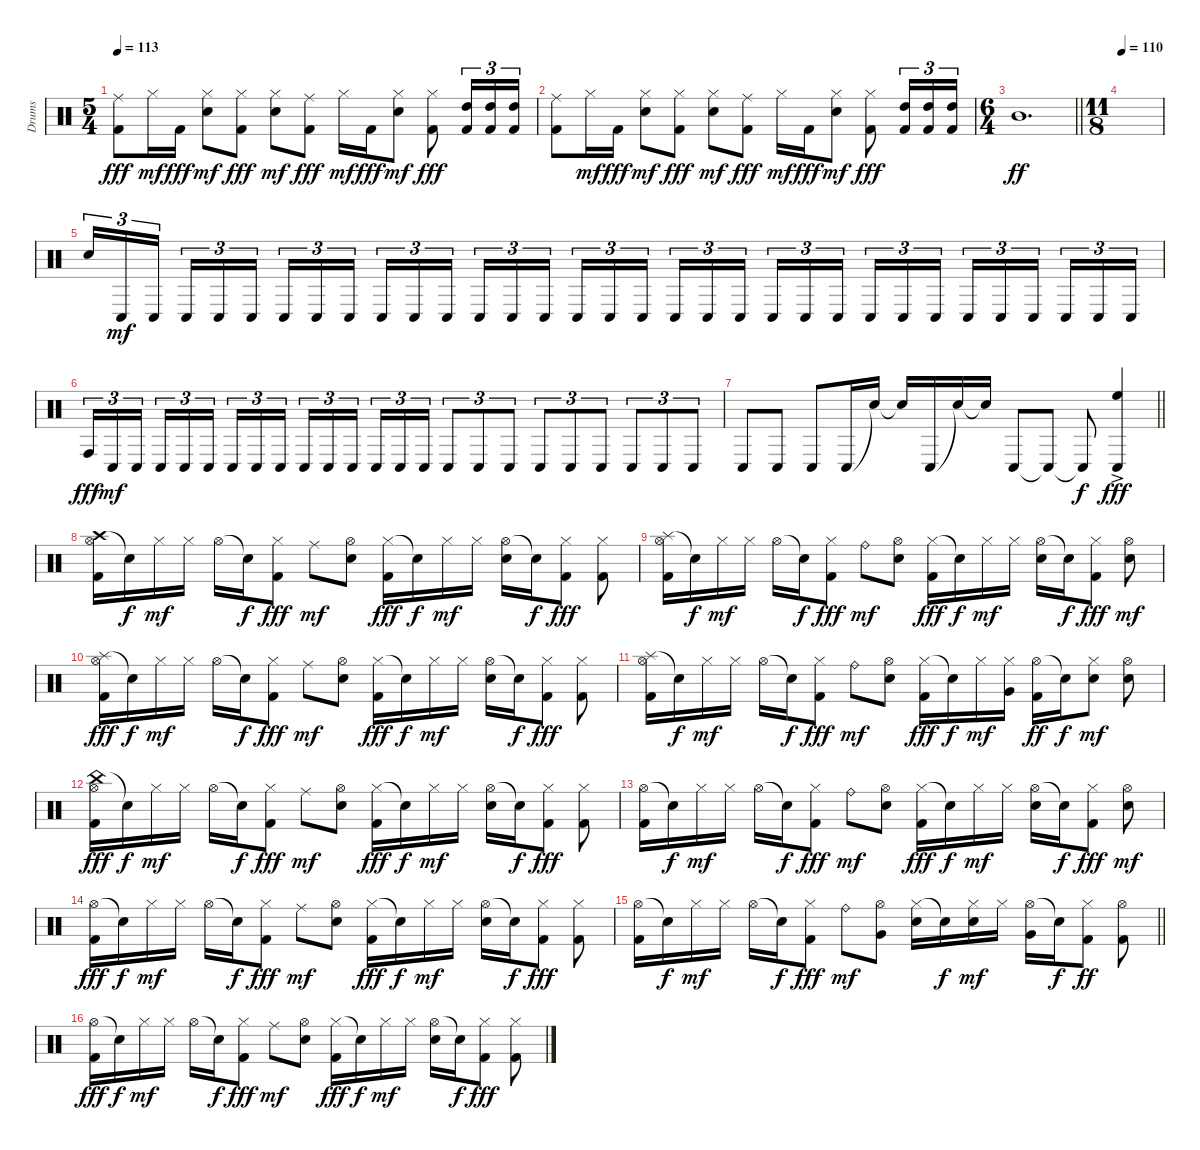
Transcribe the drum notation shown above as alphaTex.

\track ("Drums" "Drums") {instrument percussion}
\staff {score}
\articulation defaults
\ts (5 4)
\tempo 113
\clef neutral
\ks c
("Ride (middle)" "Kick (hit) 2").8{dy fff} "Hi-Hat (closed)".16{dy mf} "Kick (hit) 2".16{dy fff} ("Hi-Hat (closed)" "Snare (hit) 2").8{dy mf} ("Hi-Hat (closed)" "Kick (hit) 2").8{dy fff} ("Hi-Hat (closed)" "Snare (hit) 2").8{dy mf} ("Ride (middle)" "Kick (hit) 2").8{dy fff} "Hi-Hat (closed)".16{dy mf} "Kick (hit) 2".16{dy fff} ("Hi-Hat (closed)" "Snare (hit) 2").8{dy mf} ("Hi-Hat (closed)" "Kick (hit) 2").8{dy fff} ("High Tom (hit)" "Kick (hit) 2").16{tu (3 2)} ("High Tom (hit)" "Kick (hit) 2").16{tu (3 2)} ("High Tom (hit)" "Kick (hit) 2").16{tu (3 2)} |
("Ride (middle)" "Kick (hit) 2").8 "Hi-Hat (closed)".16{dy mf} "Kick (hit) 2".16{dy fff} ("Hi-Hat (closed)" "Snare (hit) 2").8{dy mf} ("Hi-Hat (closed)" "Kick (hit) 2").8{dy fff} ("Hi-Hat (closed)" "Snare (hit) 2").8{dy mf} ("Ride (middle)" "Kick (hit) 2").8{dy fff} "Hi-Hat (closed)".16{dy mf} "Kick (hit) 2".16{dy fff} ("Hi-Hat (closed)" "Snare (hit) 2").8{dy mf} ("Hi-Hat (closed)" "Kick (hit) 2").8{dy fff} ("High Tom (hit)" "Kick (hit) 2").16{tu (3 2)} ("High Tom (hit)" "Kick (hit) 2").16{tu (3 2)} ("High Tom (hit)" "Kick (hit) 2").16{tu (3 2)} |
\ts (6 4)
\barLineRight lightlight "Mid Tom (hit)".1{d dy ff}
|
\ts (11 8)
\section ("" "")
\tempo 110
|
"Snare (hit) 2".16{tu (3 2)} "Conga low (hit)".16{tu (3 2) dy mf} "Conga low (hit)".16{tu (3 2)} "Conga low (hit)".16{tu (3 2)} "Conga low (hit)".16{tu (3 2)} "Conga low (hit)".16{tu (3 2)} "Conga low (hit)".16{tu (3 2)} "Conga low (hit)".16{tu (3 2)} "Conga low (hit)".16{tu (3 2)} "Conga low (hit)".16{tu (3 2)} "Conga low (hit)".16{tu (3 2)} "Conga low (hit)".16{tu (3 2)} "Conga low (hit)".16{tu (3 2)} "Conga low (hit)".16{tu (3 2)} "Conga low (hit)".16{tu (3 2)} "Conga low (hit)".16{tu (3 2)} "Conga low (hit)".16{tu (3 2)} "Conga low (hit)".16{tu (3 2)} "Conga low (hit)".16{tu (3 2)} "Conga low (hit)".16{tu (3 2)} "Conga low (hit)".16{tu (3 2)} "Conga low (hit)".16{tu (3 2)} "Conga low (hit)".16{tu (3 2)} "Conga low (hit)".16{tu (3 2)} "Conga low (hit)".16{tu (3 2)} "Conga low (hit)".16{tu (3 2)} "Conga low (hit)".16{tu (3 2)} "Conga low (hit)".16{tu (3 2)} "Conga low (hit)".16{tu (3 2)} "Conga low (hit)".16{tu (3 2)} "Conga low (hit)".16{tu (3 2)} "Conga low (hit)".16{tu (3 2)} "Conga low (hit)".16{tu (3 2)} |
"Conga high (hit)".16{tu (3 2) dy fff} "Conga low (hit)".16{tu (3 2) dy mf} "Conga low (hit)".16{tu (3 2)} "Conga low (hit)".16{tu (3 2)} "Conga low (hit)".16{tu (3 2)} "Conga low (hit)".16{tu (3 2)} "Conga low (hit)".16{tu (3 2)} "Conga low (hit)".16{tu (3 2)} "Conga low (hit)".16{tu (3 2)} "Conga low (hit)".16{tu (3 2)} "Conga low (hit)".16{tu (3 2)} "Conga low (hit)".16{tu (3 2)} "Conga low (hit)".16{tu (3 2)} "Conga low (hit)".16{tu (3 2)} "Conga low (hit)".16{tu (3 2)} "Conga low (hit)".8{tu (3 2)} "Conga low (hit)".8{tu (3 2)} "Conga low (hit)".8{tu (3 2)} "Conga low (hit)".8{tu (3 2)} "Conga low (hit)".8{tu (3 2)} "Conga low (hit)".8{tu (3 2)} "Conga low (hit)".8{tu (3 2)} "Conga low (hit)".8{tu (3 2)} "Conga low (hit)".8{tu (3 2)} |
\barLineRight lightlight "Conga low (hit)".8 "Conga low (hit)".8 "Conga low (hit)".8 "Conga low (hit)".16 "Snare (hit)"{t}.16 "Snare (hit)"{t}.16 "Conga low (hit)".16 "Snare (hit)"{t}.16 "Snare (hit)"{t}.16 "Conga low (hit)".8 "Conga low (hit)"{t}.8 "Conga low (hit)"{t}.8{dy f}
("High Floor Tom (hit)"{ac} "Conga low (hit)"{ac}).4{dy fff} |
\section ("" "")
("Crash high (hit)" "Hi-Hat (open)" "Kick (hit) 2").16 "Snare (hit)"{t}.16{dy f} "Hi-Hat (closed)".16{dy mf} "Hi-Hat (closed)".16 "Hi-Hat (open)".16 "Snare (hit)"{t}.16{dy f} ("Hi-Hat (closed)" "Kick (hit) 2").8{dy fff} "Ride (middle)".8{dy mf} ("Hi-Hat (open)" "Snare (hit) 2").8 ("Hi-Hat (closed)" "Kick (hit) 2").16{dy fff} "Snare (hit)"{t}.16{dy f} "Hi-Hat (closed)".16{dy mf} "Hi-Hat (closed)".16 ("Hi-Hat (open)" "Snare (hit) 2").16 "Snare (hit)"{t}.16{dy f} ("Hi-Hat (closed)" "Kick (hit) 2").8{dy fff} ("Hi-Hat (closed)" "Kick (hit) 2").8 |
("Splash (hit)" "Hi-Hat (open)" "Kick (hit) 2").16 "Snare (hit)"{t}.16{dy f} "Hi-Hat (closed)".16{dy mf} "Hi-Hat (closed)".16 "Hi-Hat (open)".16 "Snare (hit)"{t}.16{dy f} ("Hi-Hat (closed)" "Kick (hit) 2").8{dy fff} "Ride (bell)".8{dy mf} ("Hi-Hat (open)" "Snare (hit) 2").8 ("Hi-Hat (closed)" "Kick (hit) 2").16{dy fff} "Snare (hit)"{t}.16{dy f} "Hi-Hat (closed)".16{dy mf} "Hi-Hat (closed)".16 ("Hi-Hat (open)" "Snare (hit) 2").16 "Snare (hit)"{t}.16{dy f} ("Hi-Hat (closed)" "Kick (hit) 2").8{dy fff} ("Hi-Hat (open)" "Snare (hit) 2").8{dy mf} |
("Splash (hit)" "Hi-Hat (open)" "Kick (hit) 2").16{dy fff} "Snare (hit)"{t}.16{dy f} "Hi-Hat (closed)".16{dy mf} "Hi-Hat (closed)".16 "Hi-Hat (open)".16 "Snare (hit)"{t}.16{dy f} ("Hi-Hat (closed)" "Kick (hit) 2").8{dy fff} "Ride (middle)".8{dy mf} ("Hi-Hat (open)" "Snare (hit) 2").8 ("Hi-Hat (closed)" "Kick (hit) 2").16{dy fff} "Snare (hit)"{t}.16{dy f} "Hi-Hat (closed)".16{dy mf} "Hi-Hat (closed)".16 ("Hi-Hat (open)" "Snare (hit) 2").16 "Snare (hit)"{t}.16{dy f} ("Hi-Hat (closed)" "Kick (hit) 2").8{dy fff} ("Hi-Hat (closed)" "Kick (hit) 2").8 |
("Splash (hit)" "Hi-Hat (open)" "Kick (hit) 2").16 "Snare (hit)"{t}.16{dy f} "Hi-Hat (closed)".16{dy mf} "Hi-Hat (closed)".16 "Hi-Hat (open)".16 "Snare (hit)"{t}.16{dy f} ("Hi-Hat (closed)" "Kick (hit) 2").8{dy fff} "Ride (bell)".8{dy mf} ("Hi-Hat (open)" "Snare (hit) 2").8 ("Hi-Hat (closed)" "Kick (hit) 2").16{dy fff} "Snare (hit)"{t}.16{dy f} "Hi-Hat (closed)".16{dy mf} ("Hi-Hat (closed)" "Very Low Tom (hit)").16 ("Hi-Hat (open)" "Kick (hit) 2").16{dy ff} "Snare (hit)"{t}.16{dy f} ("Hi-Hat (closed)" "Snare (hit) 2").8{dy mf} ("Hi-Hat (open)" "Snare (hit) 2").8 |
("China (hit)" "Hi-Hat (open)" "Kick (hit) 2").16{dy fff} "Snare (hit)"{t}.16{dy f} "Hi-Hat (closed)".16{dy mf} "Hi-Hat (closed)".16 "Hi-Hat (open)".16 "Snare (hit)"{t}.16{dy f} ("Hi-Hat (closed)" "Kick (hit) 2").8{dy fff} "Ride (middle)".8{dy mf} ("Hi-Hat (open)" "Snare (hit) 2").8 ("Hi-Hat (closed)" "Kick (hit) 2").16{dy fff} "Snare (hit)"{t}.16{dy f} "Hi-Hat (closed)".16{dy mf} "Hi-Hat (closed)".16 ("Hi-Hat (open)" "Snare (hit) 2").16 "Snare (hit)"{t}.16{dy f} ("Hi-Hat (closed)" "Kick (hit) 2").8{dy fff} ("Hi-Hat (closed)" "Kick (hit) 2").8 |
("Hi-Hat (open)" "Kick (hit) 2").16 "Snare (hit)"{t}.16{dy f} "Hi-Hat (closed)".16{dy mf} "Hi-Hat (closed)".16 "Hi-Hat (open)".16 "Snare (hit)"{t}.16{dy f} ("Hi-Hat (closed)" "Kick (hit) 2").8{dy fff} "Ride (bell)".8{dy mf} ("Hi-Hat (open)" "Snare (hit) 2").8 ("Hi-Hat (closed)" "Kick (hit) 2").16{dy fff} "Snare (hit)"{t}.16{dy f} "Hi-Hat (closed)".16{dy mf} "Hi-Hat (closed)".16 ("Hi-Hat (open)" "Snare (hit) 2").16 "Snare (hit)"{t}.16{dy f} ("Hi-Hat (closed)" "Kick (hit) 2").8{dy fff} ("Hi-Hat (open)" "Snare (hit) 2").8{dy mf} |
("Hi-Hat (open)" "Kick (hit) 2").16{dy fff} "Snare (hit)"{t}.16{dy f} "Hi-Hat (closed)".16{dy mf} "Hi-Hat (closed)".16 "Hi-Hat (open)".16 "Snare (hit)"{t}.16{dy f} ("Hi-Hat (closed)" "Kick (hit) 2").8{dy fff} "Ride (middle)".8{dy mf} ("Hi-Hat (open)" "Snare (hit) 2").8 ("Hi-Hat (closed)" "Kick (hit) 2").16{dy fff} "Snare (hit)"{t}.16{dy f} "Hi-Hat (closed)".16{dy mf} "Hi-Hat (closed)".16 ("Hi-Hat (open)" "Snare (hit) 2").16 "Snare (hit)"{t}.16{dy f} ("Hi-Hat (closed)" "Kick (hit) 2").8{dy fff} ("Hi-Hat (closed)" "Kick (hit) 2").8 |
\barLineRight lightlight
("Hi-Hat (open)" "Kick (hit) 2").16 "Snare (hit)"{t}.16{dy f} "Hi-Hat (closed)".16{dy mf} "Hi-Hat (closed)".16 "Hi-Hat (open)".16 "Snare (hit)"{t}.16{dy f} ("Hi-Hat (closed)" "Kick (hit) 2").8{dy fff} "Ride (bell)".8{dy mf} ("Hi-Hat (open)" "Very Low Tom (hit)").8 ("Hi-Hat (closed)" "Snare (hit) 2").16 "Snare (hit)"{t}.16{dy f} ("Hi-Hat (closed)" "Snare (hit) 2").16{dy mf} "Hi-Hat (closed)".16 ("Hi-Hat (open)" "Very Low Tom (hit)").16 "Snare (hit)"{t}.16{dy f} ("Hi-Hat (closed)" "Kick (hit) 2").8{dy ff} ("Hi-Hat (open)" "Kick (hit) 2").8 |
\section ("" "")
("Hi-Hat (open)" "Kick (hit) 2").16{dy fff} "Snare (hit)"{t}.16{dy f} "Hi-Hat (closed)".16{dy mf} "Hi-Hat (closed)".16 "Hi-Hat (open)".16 "Snare (hit)"{t}.16{dy f} ("Hi-Hat (closed)" "Kick (hit) 2").8{dy fff} "Ride (middle)".8{dy mf} ("Hi-Hat (open)" "Snare (hit) 2").8 ("Hi-Hat (closed)" "Kick (hit) 2").16{dy fff} "Snare (hit)"{t}.16{dy f} "Hi-Hat (closed)".16{dy mf} "Hi-Hat (closed)".16 ("Hi-Hat (open)" "Snare (hit) 2").16 "Snare (hit)"{t}.16{dy f} ("Hi-Hat (closed)" "Kick (hit) 2").8{dy fff} ("Hi-Hat (closed)" "Kick (hit) 2").8
